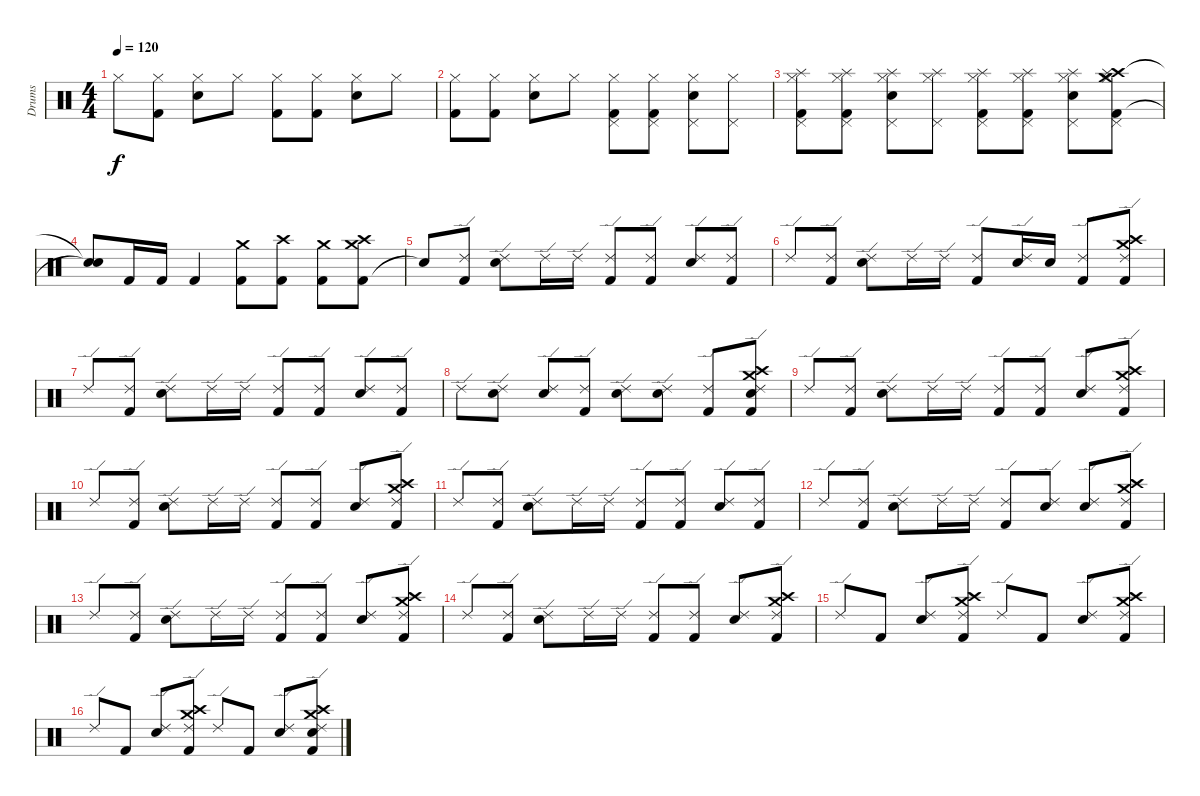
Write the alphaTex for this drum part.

\track ("Drums" "Drums") {instrument percussion}
\staff {score}
\articulation defaults
\ts (4 4)
\tempo 120
\clef neutral
\ks c "Hi-Hat (closed)".8{dy f}
("Hi-Hat (closed)" "Kick (hit) 2").8 ("Hi-Hat (closed)" "Snare (hit) 2").8 "Hi-Hat (closed)".8 ("Kick (hit) 2" "Hi-Hat (closed)").8 ("Hi-Hat (closed)" "Kick (hit) 2").8 ("Hi-Hat (closed)" "Snare (hit) 2").8 "Hi-Hat (closed)".8 |
("Kick (hit) 2" "Hi-Hat (closed)").8 ("Hi-Hat (closed)" "Kick (hit) 2").8 ("Hi-Hat (closed)" "Snare (hit) 2").8 "Hi-Hat (closed)".8 ("Pedal Hi-Hat (hit)" "Hi-Hat (closed)" "Kick (hit) 2").8 ("Pedal Hi-Hat (hit)" "Hi-Hat (closed)" "Kick (hit) 2").8 ("Pedal Hi-Hat (hit)" "Hi-Hat (closed)" "Snare (hit) 2").8 ("Pedal Hi-Hat (hit)" "Hi-Hat (closed)").8 |
("Splash (hit)" "Pedal Hi-Hat (hit)" "Hi-Hat (closed)" "Kick (hit) 2").8 ("Splash (hit)" "Pedal Hi-Hat (hit)" "Hi-Hat (closed)" "Kick (hit) 2").8 ("Splash (hit)" "Pedal Hi-Hat (hit)" "Hi-Hat (closed)" "Snare (hit) 2").8 ("Splash (hit)" "Pedal Hi-Hat (hit)" "Hi-Hat (closed)").8 ("Splash (hit)" "Pedal Hi-Hat (hit)" "Hi-Hat (closed)" "Kick (hit) 2").8 ("Splash (hit)" "Pedal Hi-Hat (hit)" "Hi-Hat (closed)" "Kick (hit) 2").8 ("Splash (hit)" "Pedal Hi-Hat (hit)" "Hi-Hat (closed)" "Snare (hit) 2").8 ("Kick (hit) 2" "Crash high (hit)" "Pedal Hi-Hat (hit)" "Hi-Hat (closed)" "Splash (hit)" "Crash medium (hit)").8 |
("Snare (hit)"{t} "Snare (hit)"{t}).8 "Kick (hit) 2".16 "Kick (hit) 2".16 "Kick (hit) 2".4 ("Kick (hit) 2" "Crash medium (hit)").8 ("Kick (hit) 2" "Crash high (hit)").8 ("Kick (hit) 2" "Crash medium (hit)").8 ("Kick (hit) 2" "Crash high (hit)" "Crash medium (hit)").8 |
"Snare (hit)"{t}.8 ("Ride (edge) 2" "Kick (hit) 2").8 ("Ride (edge) 2" "Snare (hit) 2").8 "Ride (edge) 2".16 "Ride (edge) 2".16 ("Ride (edge) 2" "Kick (hit) 2").8 ("Ride (edge) 2" "Kick (hit) 2").8 ("Ride (edge) 2" "Snare (hit) 2").8 ("Ride (edge) 2" "Kick (hit) 2").8 |
"Ride (edge) 2".8 ("Ride (edge) 2" "Kick (hit) 2").8 ("Ride (edge) 2" "Snare (hit) 2").8 "Ride (edge) 2".16 "Ride (edge) 2".16 ("Ride (edge) 2" "Kick (hit) 2").8 ("Ride (edge) 2" "Snare (hit) 2").16 "Snare (hit) 2".16 ("Ride (edge) 2" "Kick (hit) 2").8 ("Kick (hit) 2" "Ride (edge) 2" "Crash medium (hit)" "Crash high (hit)").8 |
"Ride (edge) 2".8 ("Kick (hit) 2" "Ride (edge) 2").8 ("Snare (hit) 2" "Ride (edge) 2").8 "Ride (edge) 2".16 "Ride (edge) 2".16 ("Kick (hit) 2" "Ride (edge) 2").8 ("Kick (hit) 2" "Ride (edge) 2").8 ("Snare (hit) 2" "Ride (edge) 2").8 ("Kick (hit) 2" "Ride (edge) 2").8 |
"Ride (edge) 2".8 ("Snare (hit) 2" "Ride (edge) 2").8 ("Snare (hit) 2" "Ride (edge) 2").8 ("Kick (hit) 2" "Ride (edge) 2").8 ("Snare (hit) 2" "Ride (edge) 2").8 ("Snare (hit) 2" "Ride (edge) 2").8 ("Kick (hit) 2" "Ride (edge) 2").8 ("Snare (hit) 2" "Kick (hit) 2" "Ride (edge) 2" "Crash medium (hit)" "Crash high (hit)").8 |
"Ride (edge) 2".8 ("Kick (hit) 2" "Ride (edge) 2").8 ("Snare (hit) 2" "Ride (edge) 2").8 "Ride (edge) 2".16 "Ride (edge) 2".16 ("Kick (hit) 2" "Ride (edge) 2").8 ("Kick (hit) 2" "Ride (edge) 2").8 ("Snare (hit) 2" "Ride (edge) 2").8 ("Kick (hit) 2" "Ride (edge) 2" "Crash medium (hit)" "Crash high (hit)").8 |
"Ride (edge) 2".8 ("Kick (hit) 2" "Ride (edge) 2").8 ("Snare (hit) 2" "Ride (edge) 2").8 "Ride (edge) 2".16 "Ride (edge) 2".16 ("Kick (hit) 2" "Ride (edge) 2").8 ("Kick (hit) 2" "Ride (edge) 2").8 ("Snare (hit) 2" "Ride (edge) 2").8 ("Kick (hit) 2" "Ride (edge) 2" "Crash medium (hit)" "Crash high (hit)").8 |
"Ride (edge) 2".8 ("Kick (hit) 2" "Ride (edge) 2").8 ("Snare (hit) 2" "Ride (edge) 2").8 "Ride (edge) 2".16 "Ride (edge) 2".16 ("Kick (hit) 2" "Ride (edge) 2").8 ("Ride (edge) 2" "Kick (hit) 2").8 ("Snare (hit) 2" "Ride (edge) 2").8 ("Kick (hit) 2" "Ride (edge) 2").8 |
"Ride (edge) 2".8 ("Kick (hit) 2" "Ride (edge) 2").8 ("Snare (hit) 2" "Ride (edge) 2").8 "Ride (edge) 2".16 "Ride (edge) 2".16 ("Ride (edge) 2" "Kick (hit) 2").8 ("Snare (hit) 2" "Ride (edge) 2").8 ("Snare (hit) 2" "Ride (edge) 2").8 ("Kick (hit) 2" "Ride (edge) 2" "Crash medium (hit)" "Crash high (hit)").8 |
"Ride (edge) 2".8 ("Kick (hit) 2" "Ride (edge) 2").8 ("Snare (hit) 2" "Ride (edge) 2").8 "Ride (edge) 2".16 "Ride (edge) 2".16 ("Kick (hit) 2" "Ride (edge) 2").8 ("Kick (hit) 2" "Ride (edge) 2").8 ("Snare (hit) 2" "Ride (edge) 2").8 ("Kick (hit) 2" "Ride (edge) 2" "Crash medium (hit)" "Crash high (hit)").8 |
"Ride (edge) 2".8 ("Kick (hit) 2" "Ride (edge) 2").8 ("Snare (hit) 2" "Ride (edge) 2").8 "Ride (edge) 2".16 "Ride (edge) 2".16 ("Kick (hit) 2" "Ride (edge) 2").8 ("Kick (hit) 2" "Ride (edge) 2").8 ("Snare (hit) 2" "Ride (edge) 2").8 ("Kick (hit) 2" "Ride (edge) 2" "Crash medium (hit)" "Crash high (hit)").8 |
"Ride (edge) 2".8 "Kick (hit) 2".8 ("Snare (hit) 2" "Ride (edge) 2").8 ("Crash medium (hit)" "Crash high (hit)" "Kick (hit) 2" "Ride (edge) 2").8 "Ride (edge) 2".8 "Kick (hit) 2".8 ("Snare (hit) 2" "Ride (edge) 2").8 ("Crash high (hit)" "Crash medium (hit)" "Kick (hit) 2" "Ride (edge) 2").8 |
"Ride (edge) 2".8 "Kick (hit) 2".8 ("Snare (hit) 2" "Ride (edge) 2").8 ("Kick (hit) 2" "Ride (edge) 2" "Crash medium (hit)" "Crash high (hit)").8 "Ride (edge) 2".8 "Kick (hit) 2".8 ("Snare (hit) 2" "Ride (edge) 2").8 ("Kick (hit) 2" "Snare (hit) 2" "Ride (edge) 2" "Crash medium (hit)" "Crash high (hit)").8
